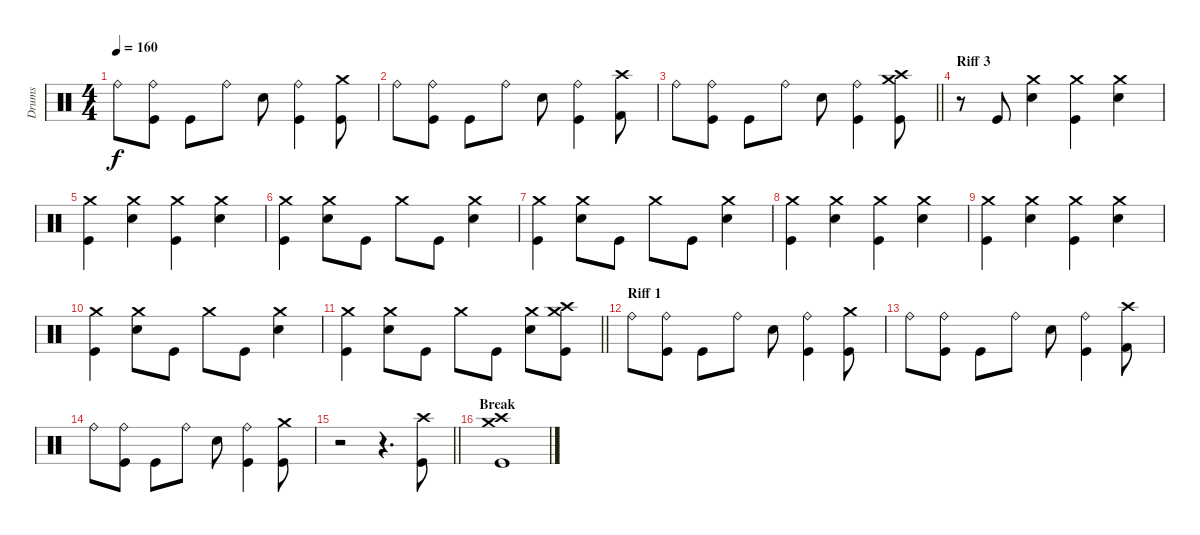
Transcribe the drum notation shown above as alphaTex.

\track ("Drums" "Drums") {instrument percussion}
\staff {score}
\articulation defaults
\ts (4 4)
\tempo 160
\clef neutral
\ks c "Ride (bell)".8{dy f}
("Kick (hit)" "Ride (bell)").8 "Kick (hit)".8 "Ride (bell)".8 "Electric Snare (hit)".8 ("Kick (hit)" "Ride (bell)").4 ("Kick (hit)" "Crash medium (hit)").8 |
"Ride (bell)".8 ("Kick (hit)" "Ride (bell)").8 "Kick (hit)".8 "Ride (bell)".8 "Electric Snare (hit)".8 ("Kick (hit)" "Ride (bell)").4 ("Kick (hit) 2" "Crash high (hit)").8 |
\barLineRight lightlight "Ride (bell)".8
("Kick (hit)" "Ride (bell)").8 "Kick (hit)".8 "Ride (bell)".8 "Electric Snare (hit)".8 ("Kick (hit)" "Ride (bell)").4 ("Kick (hit)" "Crash high (hit)" "Crash medium (hit)").8 |
\section ("" "Riff 3")
r.8 "Kick (hit)".8 ("Crash medium (hit)" "Electric Snare (hit)").4 ("Kick (hit)" "Crash medium (hit)").4 ("Crash medium (hit)" "Electric Snare (hit)").4 |
("Kick (hit)" "Crash medium (hit)").4 ("Crash medium (hit)" "Electric Snare (hit)").4 ("Kick (hit)" "Crash medium (hit)").4 ("Crash medium (hit)" "Electric Snare (hit)").4 |
("Kick (hit)" "Crash medium (hit)").4 ("Crash medium (hit)" "Electric Snare (hit)").8 "Kick (hit)".8 "Crash medium (hit)".8 "Kick (hit)".8 ("Crash medium (hit)" "Electric Snare (hit)").4 |
("Kick (hit)" "Crash medium (hit)").4 ("Crash medium (hit)" "Electric Snare (hit)").8 "Kick (hit)".8 "Crash medium (hit)".8 "Kick (hit)".8 ("Crash medium (hit)" "Electric Snare (hit)").4 |
("Kick (hit)" "Crash medium (hit)").4 ("Crash medium (hit)" "Electric Snare (hit)").4 ("Kick (hit)" "Crash medium (hit)").4 ("Crash medium (hit)" "Electric Snare (hit)").4 |
("Kick (hit)" "Crash medium (hit)").4 ("Crash medium (hit)" "Electric Snare (hit)").4 ("Kick (hit)" "Crash medium (hit)").4 ("Crash medium (hit)" "Electric Snare (hit)").4 |
("Kick (hit)" "Crash medium (hit)").4 ("Crash medium (hit)" "Electric Snare (hit)").8 "Kick (hit)".8 "Crash medium (hit)".8 "Kick (hit)".8 ("Crash medium (hit)" "Electric Snare (hit)").4 |
\barLineRight lightlight
("Kick (hit)" "Crash medium (hit)").4 ("Crash medium (hit)" "Electric Snare (hit)").8 "Kick (hit)".8 "Crash medium (hit)".8 "Kick (hit)".8 ("Crash medium (hit)" "Electric Snare (hit)").8 ("Kick (hit)" "Crash high (hit)" "Crash medium (hit)").8 |
\section ("" "Riff 1")
"Ride (bell)".8 ("Kick (hit)" "Ride (bell)").8 "Kick (hit)".8 "Ride (bell)".8 "Electric Snare (hit)".8 ("Kick (hit)" "Ride (bell)").4 ("Kick (hit)" "Crash medium (hit)").8 |
"Ride (bell)".8 ("Kick (hit)" "Ride (bell)").8 "Kick (hit)".8 "Ride (bell)".8 "Electric Snare (hit)".8 ("Kick (hit)" "Ride (bell)").4 ("Kick (hit) 2" "Crash high (hit)").8 |
"Ride (bell)".8 ("Kick (hit)" "Ride (bell)").8 "Kick (hit)".8 "Ride (bell)".8 "Electric Snare (hit)".8 ("Kick (hit)" "Ride (bell)").4 ("Kick (hit)" "Crash medium (hit)").8 |
\barLineRight lightlight
r.2 r.4{d} ("Kick (hit)" "Crash high (hit)").8 |
\section ("" "Break")
("Kick (hit)" "Crash medium (hit)" "Crash high (hit)").1
